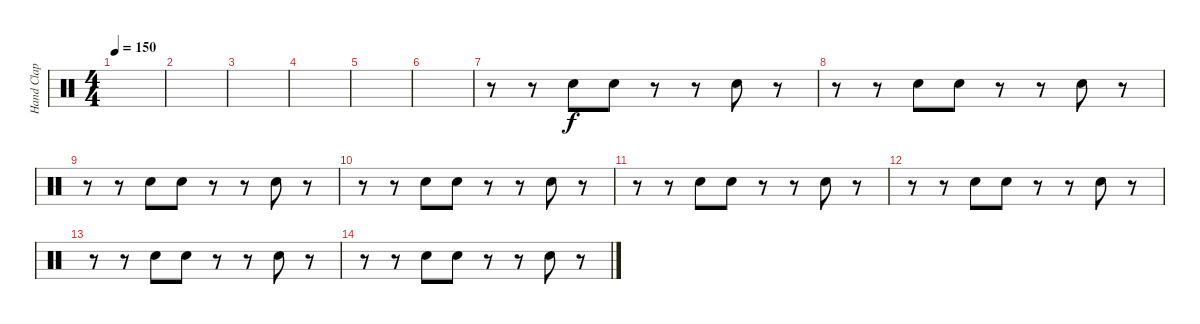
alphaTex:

\track ("Hand Clap" "Hand Clap") {instrument percussion}
\staff {score}
\articulation defaults
\ts (4 4)
\tempo 150
\clef neutral
\ks c
|
|
|
|
|
|
r.8 r.8 "Hand Clap (hit)".8 "Hand Clap (hit)".8 r.8 r.8 "Hand Clap (hit)".8 r.8 |
r.8 r.8 "Hand Clap (hit)".8 "Hand Clap (hit)".8 r.8 r.8 "Hand Clap (hit)".8 r.8 |
r.8 r.8 "Hand Clap (hit)".8 "Hand Clap (hit)".8 r.8 r.8 "Hand Clap (hit)".8 r.8 |
r.8 r.8 "Hand Clap (hit)".8 "Hand Clap (hit)".8 r.8 r.8 "Hand Clap (hit)".8 r.8 |
r.8 r.8 "Hand Clap (hit)".8 "Hand Clap (hit)".8 r.8 r.8 "Hand Clap (hit)".8 r.8 |
r.8 r.8 "Hand Clap (hit)".8 "Hand Clap (hit)".8 r.8 r.8 "Hand Clap (hit)".8 r.8 |
r.8 r.8 "Hand Clap (hit)".8 "Hand Clap (hit)".8 r.8 r.8 "Hand Clap (hit)".8 r.8 |
r.8 r.8 "Hand Clap (hit)".8 "Hand Clap (hit)".8 r.8 r.8 "Hand Clap (hit)".8 r.8
